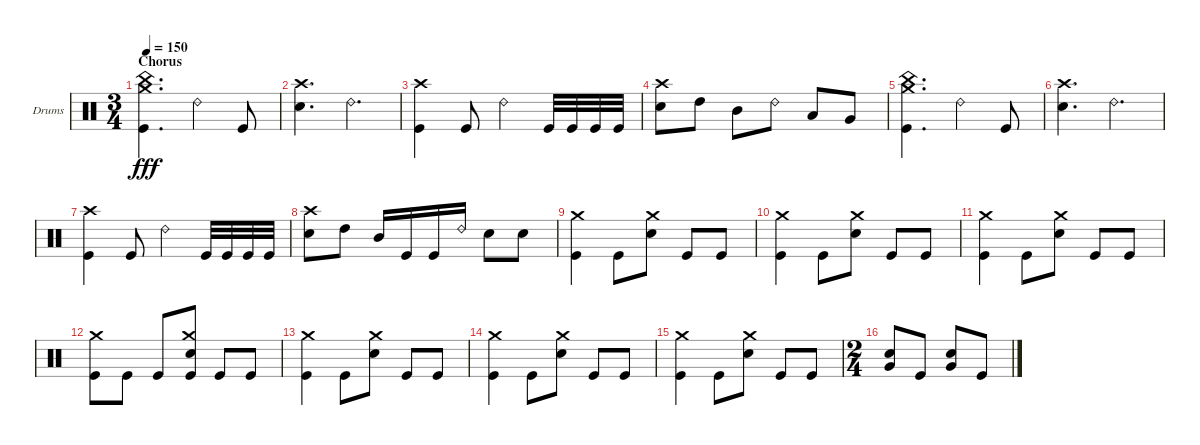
\defaultSystemsLayout 4
\bracketExtendMode groupsimilarinstruments
\firstSystemTrackNameOrientation horizontal
\otherSystemsTrackNameOrientation horizontal
\track ("Chris Adler" "Drums") {instrument percussion}
\staff {score}
\articulation defaults
\ts (3 4)
\section ("" "Chorus")
\tempo 150
\clef neutral
\ks c
("Kick (hit)" "China (hit)" "Crash medium (hit)").4{d dy fff} "Ride (bell) 2".4 "Kick (hit)".8 |
("Snare (hit) 2" "Crash high (hit)").4{d} "Ride (bell) 2".4{d} |
("Kick (hit)" "Crash high (hit)").4 "Kick (hit)".8 "Ride (bell) 2".4 "Kick (hit)".32 "Kick (hit)".32 "Kick (hit)".32 "Kick (hit)".32 |
("Snare (hit) 2" "Crash high (hit)").8 "High Tom (hit)".8 "Mid Tom (hit)".8 "Ride (bell) 2".8 "Low Tom (hit)".8 "Very Low Tom (hit)".8 |
("Kick (hit)" "China (hit)" "Crash medium (hit)").4{d} "Ride (bell) 2".4 "Kick (hit)".8 |
("Snare (hit) 2" "Crash high (hit)").4{d} "Ride (bell) 2".4{d} |
("Kick (hit)" "Crash high (hit)").4 "Kick (hit)".8 "Ride (bell) 2".4 "Kick (hit)".32 "Kick (hit)".32 "Kick (hit)".32 "Kick (hit)".32 |
("Snare (hit) 2" "Crash high (hit)").8 "High Tom (hit)".8 "Mid Tom (hit)".16 "Kick (hit)".16 "Kick (hit)".16 "Ride (bell) 2".16 "Snare (hit) 2".8 "Snare (hit) 2".8 |
("Kick (hit)" "Crash medium (hit)").4 "Kick (hit)".8 ("Snare (hit) 2" "Crash medium (hit)").8 "Kick (hit)".8 "Kick (hit)".8 |
("Kick (hit)" "Crash medium (hit)").4 "Kick (hit)".8 ("Snare (hit) 2" "Crash medium (hit)").8 "Kick (hit)".8 "Kick (hit)".8 |
("Kick (hit)" "Crash medium (hit)").4 "Kick (hit)".8 ("Snare (hit) 2" "Crash medium (hit)").8 "Kick (hit)".8 "Kick (hit)".8 |
("Kick (hit)" "Crash medium (hit)").8 "Kick (hit)".8 "Kick (hit)".8 ("Snare (hit) 2" "Crash medium (hit)" "Kick (hit)").8 "Kick (hit)".8 "Kick (hit)".8 |
("Kick (hit)" "Crash medium (hit)").4 "Kick (hit)".8 ("Snare (hit) 2" "Crash medium (hit)").8 "Kick (hit)".8 "Kick (hit)".8 |
("Kick (hit)" "Crash medium (hit)").4 "Kick (hit)".8 ("Snare (hit) 2" "Crash medium (hit)").8 "Kick (hit)".8 "Kick (hit)".8 |
("Kick (hit)" "Crash medium (hit)").4 "Kick (hit)".8 ("Snare (hit) 2" "Crash medium (hit)").8 "Kick (hit)".8 "Kick (hit)".8 |
\ts (2 4)
("Snare (hit) 2" "Very Low Tom (hit)").8 "Kick (hit)".8 ("Snare (hit) 2" "Very Low Tom (hit)").8 "Kick (hit)".8
